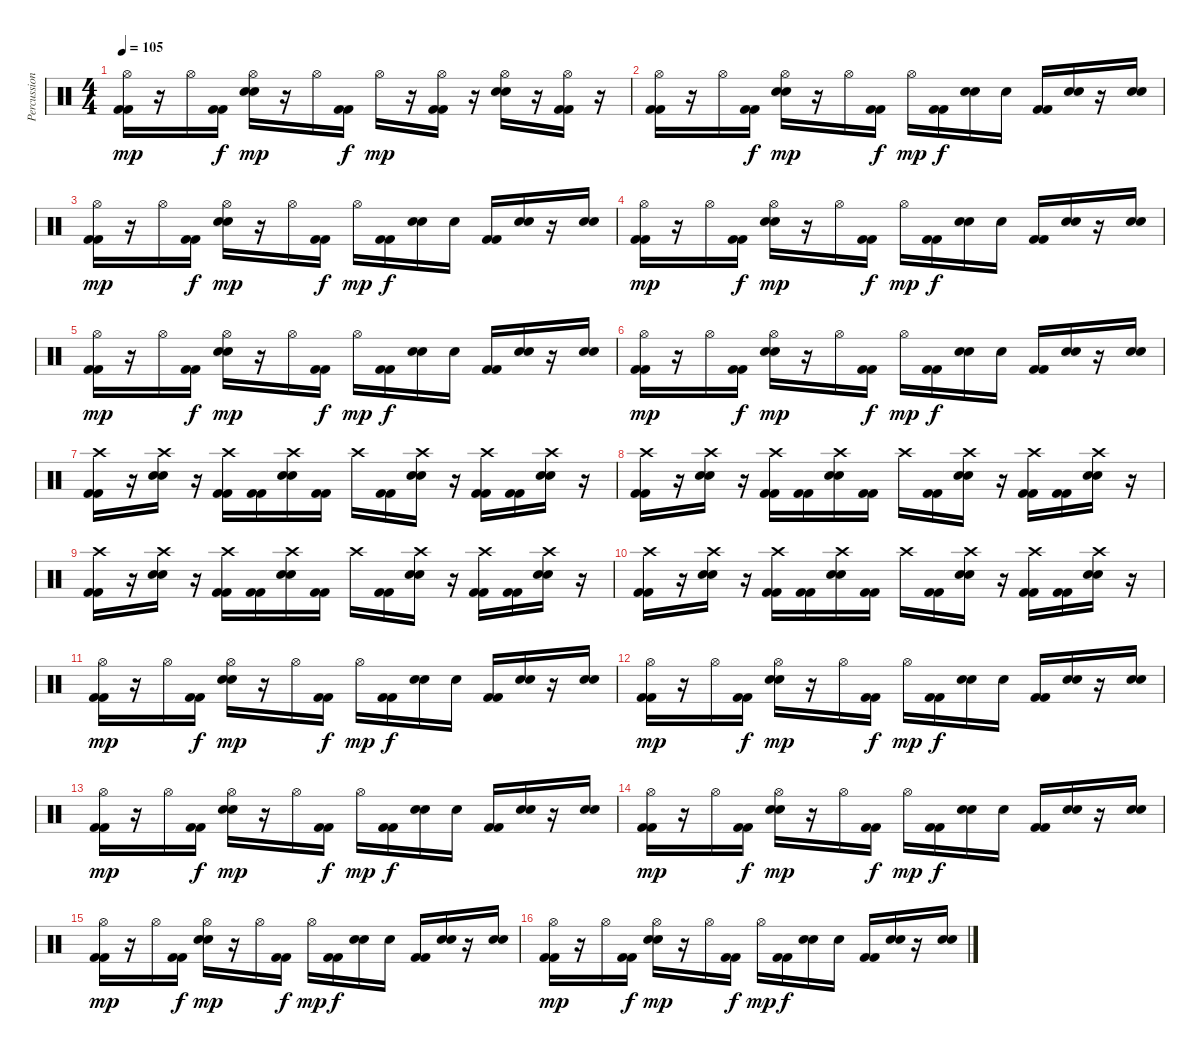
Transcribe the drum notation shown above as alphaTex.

\track ("Percussions" "Percussion") {instrument percussion}
\staff {score}
\articulation defaults
\ts (4 4)
\tempo 105
\clef neutral
\ks c
("Hi-Hat (open)" "Kick (hit) 2" "Kick (hit) 2").16{dy mp} r.16 "Hi-Hat (open)".16 ("Kick (hit) 2" "Kick (hit) 2").16{dy f} ("Hi-Hat (open)" "Electric Snare (hit)" "Electric Snare (hit)").16{dy mp} r.16 "Hi-Hat (open)".16 ("Kick (hit) 2" "Kick (hit) 2").16{dy f} "Hi-Hat (open)".16{dy mp} r.16 ("Hi-Hat (open)" "Kick (hit) 2" "Kick (hit) 2").16 r.16 ("Hi-Hat (open)" "Electric Snare (hit)" "Electric Snare (hit)").16 r.16 ("Hi-Hat (open)" "Kick (hit) 2" "Kick (hit) 2").16 r.16 |
("Hi-Hat (open)" "Kick (hit) 2" "Kick (hit) 2").16 r.16 "Hi-Hat (open)".16 ("Kick (hit) 2" "Kick (hit) 2").16{dy f} ("Hi-Hat (open)" "Electric Snare (hit)" "Electric Snare (hit)").16{dy mp} r.16 "Hi-Hat (open)".16 ("Kick (hit) 2" "Kick (hit) 2").16{dy f} "Hi-Hat (open)".16{dy mp} ("Kick (hit) 2" "Kick (hit) 2").16{dy f} ("Electric Snare (hit)" "Electric Snare (hit)").16 "Electric Snare (hit)".16 ("Kick (hit) 2" "Kick (hit) 2").16 ("Electric Snare (hit)" "Electric Snare (hit)").16 r.16 ("Electric Snare (hit)" "Electric Snare (hit)").16 |
("Hi-Hat (open)" "Kick (hit) 2" "Kick (hit) 2").16{dy mp} r.16 "Hi-Hat (open)".16 ("Kick (hit) 2" "Kick (hit) 2").16{dy f} ("Hi-Hat (open)" "Electric Snare (hit)" "Electric Snare (hit)").16{dy mp} r.16 "Hi-Hat (open)".16 ("Kick (hit) 2" "Kick (hit) 2").16{dy f} "Hi-Hat (open)".16{dy mp} ("Kick (hit) 2" "Kick (hit) 2").16{dy f} ("Electric Snare (hit)" "Electric Snare (hit)").16 "Electric Snare (hit)".16 ("Kick (hit) 2" "Kick (hit) 2").16 ("Electric Snare (hit)" "Electric Snare (hit)").16 r.16 ("Electric Snare (hit)" "Electric Snare (hit)").16 |
("Hi-Hat (open)" "Kick (hit) 2" "Kick (hit) 2").16{dy mp} r.16 "Hi-Hat (open)".16 ("Kick (hit) 2" "Kick (hit) 2").16{dy f} ("Hi-Hat (open)" "Electric Snare (hit)" "Electric Snare (hit)").16{dy mp} r.16 "Hi-Hat (open)".16 ("Kick (hit) 2" "Kick (hit) 2").16{dy f} "Hi-Hat (open)".16{dy mp} ("Kick (hit) 2" "Kick (hit) 2").16{dy f} ("Electric Snare (hit)" "Electric Snare (hit)").16 "Electric Snare (hit)".16 ("Kick (hit) 2" "Kick (hit) 2").16 ("Electric Snare (hit)" "Electric Snare (hit)").16 r.16 ("Electric Snare (hit)" "Electric Snare (hit)").16 |
("Hi-Hat (open)" "Kick (hit) 2" "Kick (hit) 2").16{dy mp} r.16 "Hi-Hat (open)".16 ("Kick (hit) 2" "Kick (hit) 2").16{dy f} ("Hi-Hat (open)" "Electric Snare (hit)" "Electric Snare (hit)").16{dy mp} r.16 "Hi-Hat (open)".16 ("Kick (hit) 2" "Kick (hit) 2").16{dy f} "Hi-Hat (open)".16{dy mp} ("Kick (hit) 2" "Kick (hit) 2").16{dy f} ("Electric Snare (hit)" "Electric Snare (hit)").16 "Electric Snare (hit)".16 ("Kick (hit) 2" "Kick (hit) 2").16 ("Electric Snare (hit)" "Electric Snare (hit)").16 r.16 ("Electric Snare (hit)" "Electric Snare (hit)").16 |
("Hi-Hat (open)" "Kick (hit) 2" "Kick (hit) 2").16{dy mp} r.16 "Hi-Hat (open)".16 ("Kick (hit) 2" "Kick (hit) 2").16{dy f} ("Hi-Hat (open)" "Electric Snare (hit)" "Electric Snare (hit)").16{dy mp} r.16 "Hi-Hat (open)".16 ("Kick (hit) 2" "Kick (hit) 2").16{dy f} "Hi-Hat (open)".16{dy mp} ("Kick (hit) 2" "Kick (hit) 2").16{dy f} ("Electric Snare (hit)" "Electric Snare (hit)").16 "Electric Snare (hit)".16 ("Kick (hit) 2" "Kick (hit) 2").16 ("Electric Snare (hit)" "Electric Snare (hit)").16 r.16 ("Electric Snare (hit)" "Electric Snare (hit)").16 |
("Crash high (hit)" "Kick (hit) 2" "Kick (hit) 2").16 r.16 ("Crash high (hit)" "Electric Snare (hit)" "Electric Snare (hit)").16 r.16 ("Crash high (hit)" "Kick (hit) 2" "Kick (hit) 2").16 ("Kick (hit) 2" "Kick (hit) 2").16 ("Crash high (hit)" "Electric Snare (hit)" "Electric Snare (hit)").16 ("Kick (hit) 2" "Kick (hit) 2").16 "Crash high (hit)".16 ("Kick (hit) 2" "Kick (hit) 2").16 ("Crash high (hit)" "Electric Snare (hit)" "Electric Snare (hit)").16 r.16 ("Crash high (hit)" "Kick (hit) 2" "Kick (hit) 2").16 ("Kick (hit) 2" "Kick (hit) 2").16 ("Crash high (hit)" "Electric Snare (hit)" "Electric Snare (hit)").16 r.16 |
("Crash high (hit)" "Kick (hit) 2" "Kick (hit) 2").16 r.16 ("Crash high (hit)" "Electric Snare (hit)" "Electric Snare (hit)").16 r.16 ("Crash high (hit)" "Kick (hit) 2" "Kick (hit) 2").16 ("Kick (hit) 2" "Kick (hit) 2").16 ("Crash high (hit)" "Electric Snare (hit)" "Electric Snare (hit)").16 ("Kick (hit) 2" "Kick (hit) 2").16 "Crash high (hit)".16 ("Kick (hit) 2" "Kick (hit) 2").16 ("Crash high (hit)" "Electric Snare (hit)" "Electric Snare (hit)").16 r.16 ("Crash high (hit)" "Kick (hit) 2" "Kick (hit) 2").16 ("Kick (hit) 2" "Kick (hit) 2").16 ("Crash high (hit)" "Electric Snare (hit)" "Electric Snare (hit)").16 r.16 |
("Crash high (hit)" "Kick (hit) 2" "Kick (hit) 2").16 r.16 ("Crash high (hit)" "Electric Snare (hit)" "Electric Snare (hit)").16 r.16 ("Crash high (hit)" "Kick (hit) 2" "Kick (hit) 2").16 ("Kick (hit) 2" "Kick (hit) 2").16 ("Crash high (hit)" "Electric Snare (hit)" "Electric Snare (hit)").16 ("Kick (hit) 2" "Kick (hit) 2").16 "Crash high (hit)".16 ("Kick (hit) 2" "Kick (hit) 2").16 ("Crash high (hit)" "Electric Snare (hit)" "Electric Snare (hit)").16 r.16 ("Crash high (hit)" "Kick (hit) 2" "Kick (hit) 2").16 ("Kick (hit) 2" "Kick (hit) 2").16 ("Crash high (hit)" "Electric Snare (hit)" "Electric Snare (hit)").16 r.16 |
("Crash high (hit)" "Kick (hit) 2" "Kick (hit) 2").16 r.16 ("Crash high (hit)" "Electric Snare (hit)" "Electric Snare (hit)").16 r.16 ("Crash high (hit)" "Kick (hit) 2" "Kick (hit) 2").16 ("Kick (hit) 2" "Kick (hit) 2").16 ("Crash high (hit)" "Electric Snare (hit)" "Electric Snare (hit)").16 ("Kick (hit) 2" "Kick (hit) 2").16 "Crash high (hit)".16 ("Kick (hit) 2" "Kick (hit) 2").16 ("Crash high (hit)" "Electric Snare (hit)" "Electric Snare (hit)").16 r.16 ("Crash high (hit)" "Kick (hit) 2" "Kick (hit) 2").16 ("Kick (hit) 2" "Kick (hit) 2").16 ("Crash high (hit)" "Electric Snare (hit)" "Electric Snare (hit)").16 r.16 |
("Hi-Hat (open)" "Kick (hit) 2" "Kick (hit) 2").16{dy mp} r.16 "Hi-Hat (open)".16 ("Kick (hit) 2" "Kick (hit) 2").16{dy f} ("Hi-Hat (open)" "Electric Snare (hit)" "Electric Snare (hit)").16{dy mp} r.16 "Hi-Hat (open)".16 ("Kick (hit) 2" "Kick (hit) 2").16{dy f} "Hi-Hat (open)".16{dy mp} ("Kick (hit) 2" "Kick (hit) 2").16{dy f} ("Electric Snare (hit)" "Electric Snare (hit)").16 "Electric Snare (hit)".16 ("Kick (hit) 2" "Kick (hit) 2").16 ("Electric Snare (hit)" "Electric Snare (hit)").16 r.16 ("Electric Snare (hit)" "Electric Snare (hit)").16 |
("Hi-Hat (open)" "Kick (hit) 2" "Kick (hit) 2").16{dy mp} r.16 "Hi-Hat (open)".16 ("Kick (hit) 2" "Kick (hit) 2").16{dy f} ("Hi-Hat (open)" "Electric Snare (hit)" "Electric Snare (hit)").16{dy mp} r.16 "Hi-Hat (open)".16 ("Kick (hit) 2" "Kick (hit) 2").16{dy f} "Hi-Hat (open)".16{dy mp} ("Kick (hit) 2" "Kick (hit) 2").16{dy f} ("Electric Snare (hit)" "Electric Snare (hit)").16 "Electric Snare (hit)".16 ("Kick (hit) 2" "Kick (hit) 2").16 ("Electric Snare (hit)" "Electric Snare (hit)").16 r.16 ("Electric Snare (hit)" "Electric Snare (hit)").16 |
("Hi-Hat (open)" "Kick (hit) 2" "Kick (hit) 2").16{dy mp} r.16 "Hi-Hat (open)".16 ("Kick (hit) 2" "Kick (hit) 2").16{dy f} ("Hi-Hat (open)" "Electric Snare (hit)" "Electric Snare (hit)").16{dy mp} r.16 "Hi-Hat (open)".16 ("Kick (hit) 2" "Kick (hit) 2").16{dy f} "Hi-Hat (open)".16{dy mp} ("Kick (hit) 2" "Kick (hit) 2").16{dy f} ("Electric Snare (hit)" "Electric Snare (hit)").16 "Electric Snare (hit)".16 ("Kick (hit) 2" "Kick (hit) 2").16 ("Electric Snare (hit)" "Electric Snare (hit)").16 r.16 ("Electric Snare (hit)" "Electric Snare (hit)").16 |
("Hi-Hat (open)" "Kick (hit) 2" "Kick (hit) 2").16{dy mp} r.16 "Hi-Hat (open)".16 ("Kick (hit) 2" "Kick (hit) 2").16{dy f} ("Hi-Hat (open)" "Electric Snare (hit)" "Electric Snare (hit)").16{dy mp} r.16 "Hi-Hat (open)".16 ("Kick (hit) 2" "Kick (hit) 2").16{dy f} "Hi-Hat (open)".16{dy mp} ("Kick (hit) 2" "Kick (hit) 2").16{dy f} ("Electric Snare (hit)" "Electric Snare (hit)").16 "Electric Snare (hit)".16 ("Kick (hit) 2" "Kick (hit) 2").16 ("Electric Snare (hit)" "Electric Snare (hit)").16 r.16 ("Electric Snare (hit)" "Electric Snare (hit)").16 |
("Hi-Hat (open)" "Kick (hit) 2" "Kick (hit) 2").16{dy mp} r.16 "Hi-Hat (open)".16 ("Kick (hit) 2" "Kick (hit) 2").16{dy f} ("Hi-Hat (open)" "Electric Snare (hit)" "Electric Snare (hit)").16{dy mp} r.16 "Hi-Hat (open)".16 ("Kick (hit) 2" "Kick (hit) 2").16{dy f} "Hi-Hat (open)".16{dy mp} ("Kick (hit) 2" "Kick (hit) 2").16{dy f} ("Electric Snare (hit)" "Electric Snare (hit)").16 "Electric Snare (hit)".16 ("Kick (hit) 2" "Kick (hit) 2").16 ("Electric Snare (hit)" "Electric Snare (hit)").16 r.16 ("Electric Snare (hit)" "Electric Snare (hit)").16 |
("Hi-Hat (open)" "Kick (hit) 2" "Kick (hit) 2").16{dy mp} r.16 "Hi-Hat (open)".16 ("Kick (hit) 2" "Kick (hit) 2").16{dy f} ("Hi-Hat (open)" "Electric Snare (hit)" "Electric Snare (hit)").16{dy mp} r.16 "Hi-Hat (open)".16 ("Kick (hit) 2" "Kick (hit) 2").16{dy f} "Hi-Hat (open)".16{dy mp} ("Kick (hit) 2" "Kick (hit) 2").16{dy f} ("Electric Snare (hit)" "Electric Snare (hit)").16 "Electric Snare (hit)".16 ("Kick (hit) 2" "Kick (hit) 2").16 ("Electric Snare (hit)" "Electric Snare (hit)").16 r.16 ("Electric Snare (hit)" "Electric Snare (hit)").16
